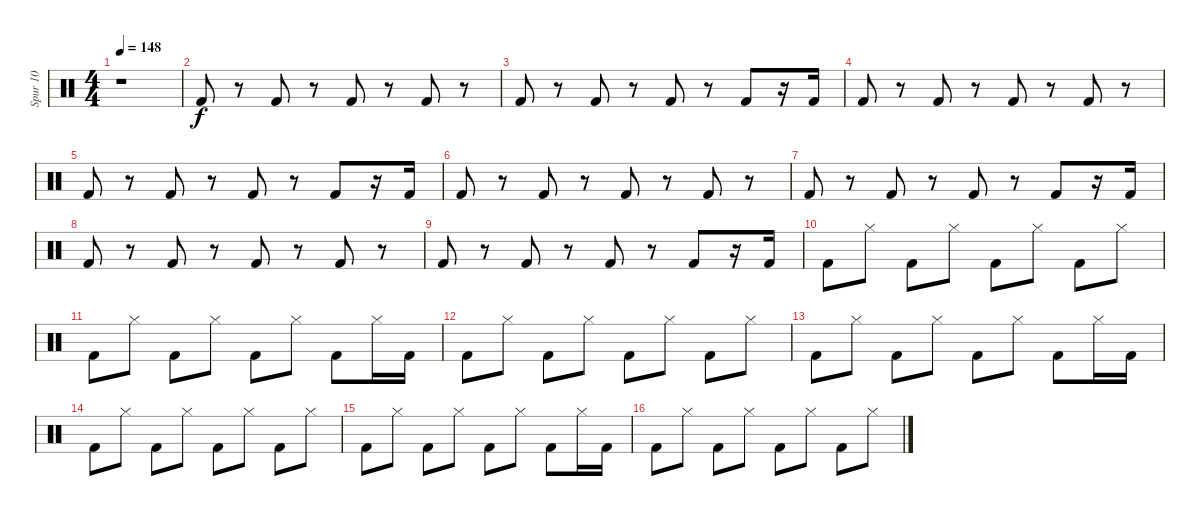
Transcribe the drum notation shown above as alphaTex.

\track ("Spur 10" "Spur 10") {instrument percussion}
\staff {score}
\articulation defaults
\ts (4 4)
\tempo 148
\clef neutral
\ks c
r.1{dy f} |
"Kick (hit) 2".8 r.8 "Kick (hit) 2".8 r.8 "Kick (hit) 2".8 r.8 "Kick (hit) 2".8 r.8 |
"Kick (hit) 2".8 r.8 "Kick (hit) 2".8 r.8 "Kick (hit) 2".8 r.8 "Kick (hit) 2".8 r.16 "Kick (hit) 2".16 |
"Kick (hit) 2".8 r.8 "Kick (hit) 2".8 r.8 "Kick (hit) 2".8 r.8 "Kick (hit) 2".8 r.8 |
"Kick (hit) 2".8 r.8 "Kick (hit) 2".8 r.8 "Kick (hit) 2".8 r.8 "Kick (hit) 2".8 r.16 "Kick (hit) 2".16 |
"Kick (hit) 2".8 r.8 "Kick (hit) 2".8 r.8 "Kick (hit) 2".8 r.8 "Kick (hit) 2".8 r.8 |
"Kick (hit) 2".8 r.8 "Kick (hit) 2".8 r.8 "Kick (hit) 2".8 r.8 "Kick (hit) 2".8 r.16 "Kick (hit) 2".16 |
"Kick (hit) 2".8 r.8 "Kick (hit) 2".8 r.8 "Kick (hit) 2".8 r.8 "Kick (hit) 2".8 r.8 |
"Kick (hit) 2".8 r.8 "Kick (hit) 2".8 r.8 "Kick (hit) 2".8 r.8 "Kick (hit) 2".8 r.16 "Kick (hit) 2".16 |
"Kick (hit) 2".8 "Hi-Hat (closed)".8 "Kick (hit) 2".8 "Hi-Hat (closed)".8 "Kick (hit) 2".8 "Hi-Hat (closed)".8 "Kick (hit) 2".8 "Hi-Hat (closed)".8 |
"Kick (hit) 2".8 "Hi-Hat (closed)".8 "Kick (hit) 2".8 "Hi-Hat (closed)".8 "Kick (hit) 2".8 "Hi-Hat (closed)".8 "Kick (hit) 2".8 "Hi-Hat (closed)".16 "Kick (hit) 2".16 |
"Kick (hit) 2".8 "Hi-Hat (closed)".8 "Kick (hit) 2".8 "Hi-Hat (closed)".8 "Kick (hit) 2".8 "Hi-Hat (closed)".8 "Kick (hit) 2".8 "Hi-Hat (closed)".8 |
"Kick (hit) 2".8 "Hi-Hat (closed)".8 "Kick (hit) 2".8 "Hi-Hat (closed)".8 "Kick (hit) 2".8 "Hi-Hat (closed)".8 "Kick (hit) 2".8 "Hi-Hat (closed)".16 "Kick (hit) 2".16 |
"Kick (hit) 2".8 "Hi-Hat (closed)".8 "Kick (hit) 2".8 "Hi-Hat (closed)".8 "Kick (hit) 2".8 "Hi-Hat (closed)".8 "Kick (hit) 2".8 "Hi-Hat (closed)".8 |
"Kick (hit) 2".8 "Hi-Hat (closed)".8 "Kick (hit) 2".8 "Hi-Hat (closed)".8 "Kick (hit) 2".8 "Hi-Hat (closed)".8 "Kick (hit) 2".8 "Hi-Hat (closed)".16 "Kick (hit) 2".16 |
"Kick (hit) 2".8 "Hi-Hat (closed)".8 "Kick (hit) 2".8 "Hi-Hat (closed)".8 "Kick (hit) 2".8 "Hi-Hat (closed)".8 "Kick (hit) 2".8 "Hi-Hat (closed)".8
